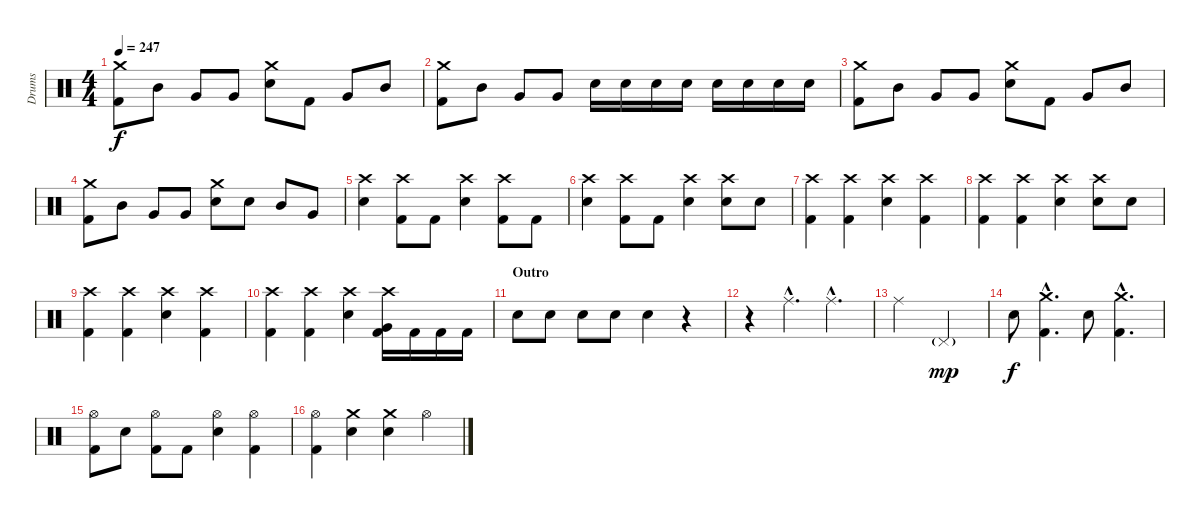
\track ("Drums" "Drums") {instrument percussion}
\staff {score}
\articulation defaults
\ts (4 4)
\tempo 247
\clef neutral
\ks c
("Crash medium (hit)" "Kick (hit) 2").8{dy f} "Mid Tom (hit)".8 "Very Low Tom (hit)".8 "Very Low Tom (hit)".8 ("Crash medium (hit)" "Electric Snare (hit)").8 "Kick (hit) 2".8 "Very Low Tom (hit)".8 "Mid Tom (hit)".8 |
("Crash medium (hit)" "Kick (hit) 2").8 "Mid Tom (hit)".8 "Very Low Tom (hit)".8 "Very Low Tom (hit)".8 "Electric Snare (hit)".16 "Electric Snare (hit)".16 "Electric Snare (hit)".16 "Electric Snare (hit)".16 "Electric Snare (hit)".16 "Electric Snare (hit)".16 "Electric Snare (hit)".16 "Electric Snare (hit)".16 |
("Crash medium (hit)" "Kick (hit) 2").8 "Mid Tom (hit)".8 "Very Low Tom (hit)".8 "Very Low Tom (hit)".8 ("Crash medium (hit)" "Electric Snare (hit)").8 "Kick (hit) 2".8 "Very Low Tom (hit)".8 "Mid Tom (hit)".8 |
("Crash medium (hit)" "Kick (hit) 2").8 "Mid Tom (hit)".8 "Very Low Tom (hit)".8 "Very Low Tom (hit)".8 ("Crash medium (hit)" "Electric Snare (hit)").8 "Electric Snare (hit)".8 "Mid Tom (hit)".8 "Very Low Tom (hit)".8 |
("Crash high (hit)" "Electric Snare (hit)").4 ("Crash high (hit)" "Kick (hit) 2").8 "Kick (hit) 2".8 ("Crash high (hit)" "Electric Snare (hit)").4 ("Crash high (hit)" "Kick (hit) 2").8 "Kick (hit) 2".8 |
("Crash high (hit)" "Electric Snare (hit)").4 ("Crash high (hit)" "Kick (hit) 2").8 "Kick (hit) 2".8 ("Crash high (hit)" "Electric Snare (hit)").4 ("Crash high (hit)" "Electric Snare (hit)").8 "Electric Snare (hit)".8 |
("Crash high (hit)" "Kick (hit) 2").4 ("Crash high (hit)" "Kick (hit) 2").4 ("Crash high (hit)" "Electric Snare (hit)").4 ("Crash high (hit)" "Kick (hit) 2").4 |
("Crash high (hit)" "Kick (hit) 2").4 ("Crash high (hit)" "Kick (hit) 2").4 ("Crash high (hit)" "Electric Snare (hit)").4 ("Crash high (hit)" "Electric Snare (hit)").8 "Electric Snare (hit)".8 |
("Crash high (hit)" "Kick (hit) 2").4 ("Crash high (hit)" "Kick (hit) 2").4 ("Crash high (hit)" "Electric Snare (hit)").4 ("Crash high (hit)" "Kick (hit) 2").4 |
("Crash high (hit)" "Kick (hit) 2").4 ("Crash high (hit)" "Kick (hit) 2").4 ("Crash high (hit)" "Electric Snare (hit)").4 ("Crash high (hit)" "Very Low Tom (hit)" "Kick (hit) 2").16 "Kick (hit) 2".16 "Kick (hit) 2".16 "Kick (hit) 2".16 |
\section ("" "Outro")
"Electric Snare (hit)".8 "Electric Snare (hit)".8 "Electric Snare (hit)".8 "Electric Snare (hit)".8 "Electric Snare (hit)".4 r.4 |
r.4 "Ride (middle)"{hac}.4{d} "Ride (middle)"{hac}.4{d} |
"Ride (middle)".2 "Pedal Hi-Hat (hit)"{g}.2{dy mp} |
"Electric Snare (hit)".8{dy f} ("Crash medium (hit)"{hac} "Kick (hit) 2"{hac}).4{d} "Electric Snare (hit)".8 ("Crash medium (hit)"{hac} "Kick (hit) 2"{hac}).4{d} |
("Hi-Hat (open)" "Kick (hit) 2").8 "Electric Snare (hit)".8 ("Hi-Hat (open)" "Kick (hit) 2").8 "Kick (hit) 2".8 ("Hi-Hat (open)" "Electric Snare (hit)").4 ("Hi-Hat (open)" "Kick (hit) 2").4 |
("Hi-Hat (open)" "Kick (hit) 2").4 ("Crash medium (hit)" "Electric Snare (hit)").4 ("Crash medium (hit)" "Electric Snare (hit)").4 "Hi-Hat (open)".4
